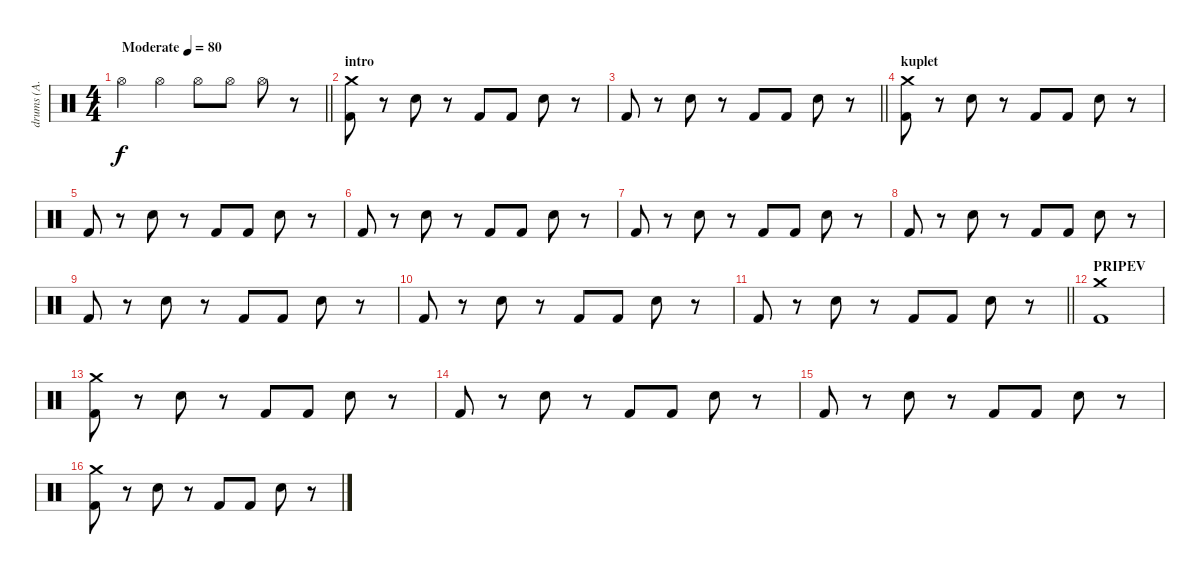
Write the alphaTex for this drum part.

\track ("drums (А. Котов)" "drums (А. ") {instrument percussion}
\staff {score}
\articulation defaults
\ts (4 4)
\tempo (80 "Moderate")
\clef neutral
\barLineRight lightlight
\ks c "Hi-Hat (open)".4{dy f} "Hi-Hat (open)".4 "Hi-Hat (open)".8 "Hi-Hat (open)".8 "Hi-Hat (open)".8
r.8 |
\section ("" "intro")
("Kick (hit) 2" "Crash medium (hit)").8 r.8 "Snare (hit) 2".8 r.8 "Kick (hit) 2".8 "Kick (hit) 2".8 "Snare (hit) 2".8 r.8 |
\barLineRight lightlight "Kick (hit) 2".8
r.8 "Snare (hit) 2".8 r.8 "Kick (hit) 2".8 "Kick (hit) 2".8 "Snare (hit) 2".8 r.8 |
\section ("" "kuplet")
("Kick (hit) 2" "Crash medium (hit)").8 r.8 "Snare (hit) 2".8 r.8 "Kick (hit) 2".8 "Kick (hit) 2".8 "Snare (hit) 2".8 r.8 |
"Kick (hit) 2".8 r.8 "Snare (hit) 2".8 r.8 "Kick (hit) 2".8 "Kick (hit) 2".8 "Snare (hit) 2".8 r.8 |
"Kick (hit) 2".8 r.8 "Snare (hit) 2".8 r.8 "Kick (hit) 2".8 "Kick (hit) 2".8 "Snare (hit) 2".8 r.8 |
"Kick (hit) 2".8 r.8 "Snare (hit) 2".8 r.8 "Kick (hit) 2".8 "Kick (hit) 2".8 "Snare (hit) 2".8 r.8 |
"Kick (hit) 2".8 r.8 "Snare (hit) 2".8 r.8 "Kick (hit) 2".8 "Kick (hit) 2".8 "Snare (hit) 2".8 r.8 |
"Kick (hit) 2".8 r.8 "Snare (hit) 2".8 r.8 "Kick (hit) 2".8 "Kick (hit) 2".8 "Snare (hit) 2".8 r.8 |
"Kick (hit) 2".8 r.8 "Snare (hit) 2".8 r.8 "Kick (hit) 2".8 "Kick (hit) 2".8 "Snare (hit) 2".8 r.8 |
\barLineRight lightlight "Kick (hit) 2".8
r.8 "Snare (hit) 2".8 r.8 "Kick (hit) 2".8 "Kick (hit) 2".8 "Snare (hit) 2".8 r.8 |
\section ("" "PRIPEV")
("Kick (hit) 2" "Crash medium (hit)").1 |
("Kick (hit) 2" "Crash medium (hit)").8 r.8 "Snare (hit) 2".8 r.8 "Kick (hit) 2".8 "Kick (hit) 2".8 "Snare (hit) 2".8 r.8 |
"Kick (hit) 2".8 r.8 "Snare (hit) 2".8 r.8 "Kick (hit) 2".8 "Kick (hit) 2".8 "Snare (hit) 2".8 r.8 |
"Kick (hit) 2".8 r.8 "Snare (hit) 2".8 r.8 "Kick (hit) 2".8 "Kick (hit) 2".8 "Snare (hit) 2".8 r.8 |
("Kick (hit) 2" "Crash medium (hit)").8 r.8 "Snare (hit) 2".8 r.8 "Kick (hit) 2".8 "Kick (hit) 2".8 "Snare (hit) 2".8 r.8
